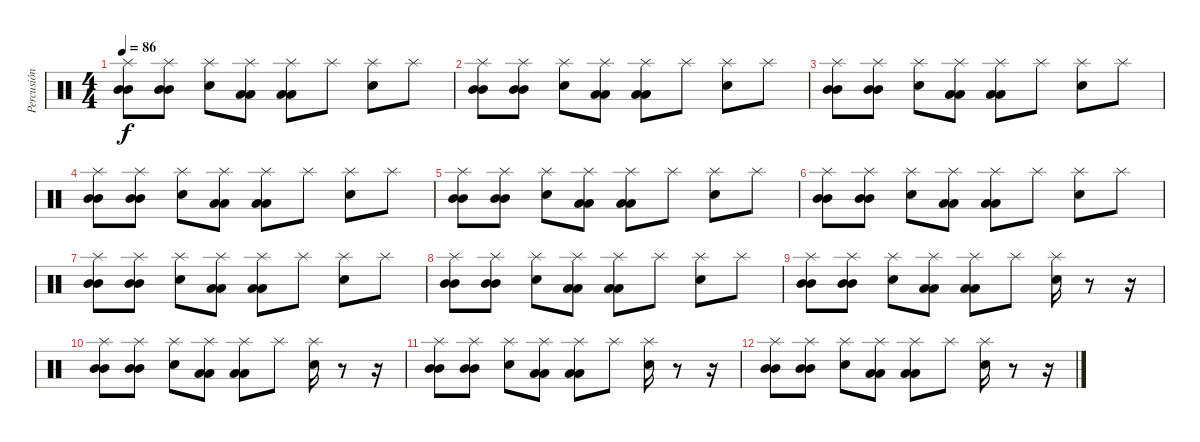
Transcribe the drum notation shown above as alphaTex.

\track ("Percusión" "Percusión") {instrument percussion}
\staff {score}
\articulation defaults
\ts (4 4)
\tempo 86
\clef neutral
\ks c
("Mid Tom (hit)" "Mid Tom (hit)" "Splash (hit)").8{dy f} ("Mid Tom (hit)" "Mid Tom (hit)" "Splash (hit)").8 ("Electric Snare (hit)" "Splash (hit)").8 ("Low Tom (hit)" "Low Tom (hit)" "Splash (hit)").8 ("Low Tom (hit)" "Low Tom (hit)" "Splash (hit)").8 "Splash (hit)".8 ("Electric Snare (hit)" "Splash (hit)").8 "Splash (hit)".8 |
("Mid Tom (hit)" "Mid Tom (hit)" "Splash (hit)").8 ("Mid Tom (hit)" "Mid Tom (hit)" "Splash (hit)").8 ("Electric Snare (hit)" "Splash (hit)").8 ("Low Tom (hit)" "Low Tom (hit)" "Splash (hit)").8 ("Low Tom (hit)" "Low Tom (hit)" "Splash (hit)").8 "Splash (hit)".8 ("Electric Snare (hit)" "Splash (hit)").8 "Splash (hit)".8 |
("Mid Tom (hit)" "Mid Tom (hit)" "Splash (hit)").8 ("Mid Tom (hit)" "Mid Tom (hit)" "Splash (hit)").8 ("Electric Snare (hit)" "Splash (hit)").8 ("Low Tom (hit)" "Low Tom (hit)" "Splash (hit)").8 ("Low Tom (hit)" "Low Tom (hit)" "Splash (hit)").8 "Splash (hit)".8 ("Electric Snare (hit)" "Splash (hit)").8 "Splash (hit)".8 |
("Mid Tom (hit)" "Mid Tom (hit)" "Splash (hit)").8 ("Mid Tom (hit)" "Mid Tom (hit)" "Splash (hit)").8 ("Electric Snare (hit)" "Splash (hit)").8 ("Low Tom (hit)" "Low Tom (hit)" "Splash (hit)").8 ("Low Tom (hit)" "Low Tom (hit)" "Splash (hit)").8 "Splash (hit)".8 ("Electric Snare (hit)" "Splash (hit)").8 "Splash (hit)".8 |
("Mid Tom (hit)" "Mid Tom (hit)" "Splash (hit)").8 ("Mid Tom (hit)" "Mid Tom (hit)" "Splash (hit)").8 ("Electric Snare (hit)" "Splash (hit)").8 ("Low Tom (hit)" "Low Tom (hit)" "Splash (hit)").8 ("Low Tom (hit)" "Low Tom (hit)" "Splash (hit)").8 "Splash (hit)".8 ("Electric Snare (hit)" "Splash (hit)").8 "Splash (hit)".8 |
("Mid Tom (hit)" "Mid Tom (hit)" "Splash (hit)").8 ("Mid Tom (hit)" "Mid Tom (hit)" "Splash (hit)").8 ("Electric Snare (hit)" "Splash (hit)").8 ("Low Tom (hit)" "Low Tom (hit)" "Splash (hit)").8 ("Low Tom (hit)" "Low Tom (hit)" "Splash (hit)").8 "Splash (hit)".8 ("Electric Snare (hit)" "Splash (hit)").8 "Splash (hit)".8 |
("Mid Tom (hit)" "Mid Tom (hit)" "Splash (hit)").8 ("Mid Tom (hit)" "Mid Tom (hit)" "Splash (hit)").8 ("Electric Snare (hit)" "Splash (hit)").8 ("Low Tom (hit)" "Low Tom (hit)" "Splash (hit)").8 ("Low Tom (hit)" "Low Tom (hit)" "Splash (hit)").8 "Splash (hit)".8 ("Electric Snare (hit)" "Splash (hit)").8 "Splash (hit)".8 |
("Mid Tom (hit)" "Mid Tom (hit)" "Splash (hit)").8 ("Mid Tom (hit)" "Mid Tom (hit)" "Splash (hit)").8 ("Electric Snare (hit)" "Splash (hit)").8 ("Low Tom (hit)" "Low Tom (hit)" "Splash (hit)").8 ("Low Tom (hit)" "Low Tom (hit)" "Splash (hit)").8 "Splash (hit)".8 ("Electric Snare (hit)" "Splash (hit)").8 "Splash (hit)".8 |
("Mid Tom (hit)" "Mid Tom (hit)" "Splash (hit)").8 ("Mid Tom (hit)" "Mid Tom (hit)" "Splash (hit)").8 ("Electric Snare (hit)" "Splash (hit)").8 ("Low Tom (hit)" "Low Tom (hit)" "Splash (hit)").8 ("Low Tom (hit)" "Low Tom (hit)" "Splash (hit)").8 "Splash (hit)".8 ("Electric Snare (hit)" "Splash (hit)").16 r.8 r.16 |
("Mid Tom (hit)" "Mid Tom (hit)" "Splash (hit)").8 ("Mid Tom (hit)" "Mid Tom (hit)" "Splash (hit)").8 ("Electric Snare (hit)" "Splash (hit)").8 ("Low Tom (hit)" "Low Tom (hit)" "Splash (hit)").8 ("Low Tom (hit)" "Low Tom (hit)" "Splash (hit)").8 "Splash (hit)".8 ("Electric Snare (hit)" "Splash (hit)").16 r.8 r.16 |
("Mid Tom (hit)" "Mid Tom (hit)" "Splash (hit)").8 ("Mid Tom (hit)" "Mid Tom (hit)" "Splash (hit)").8 ("Electric Snare (hit)" "Splash (hit)").8 ("Low Tom (hit)" "Low Tom (hit)" "Splash (hit)").8 ("Low Tom (hit)" "Low Tom (hit)" "Splash (hit)").8 "Splash (hit)".8 ("Electric Snare (hit)" "Splash (hit)").16 r.8 r.16 |
("Mid Tom (hit)" "Mid Tom (hit)" "Splash (hit)").8 ("Mid Tom (hit)" "Mid Tom (hit)" "Splash (hit)").8 ("Electric Snare (hit)" "Splash (hit)").8 ("Low Tom (hit)" "Low Tom (hit)" "Splash (hit)").8 ("Low Tom (hit)" "Low Tom (hit)" "Splash (hit)").8 "Splash (hit)".8 ("Electric Snare (hit)" "Splash (hit)").16 r.8 r.16
